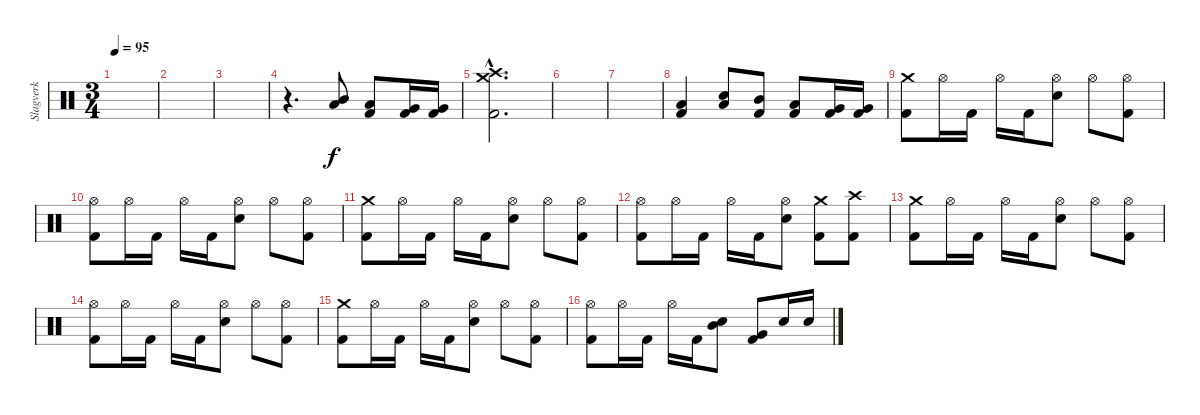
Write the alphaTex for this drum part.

\track ("Slagverk" "Slagverk") {instrument percussion}
\staff {score}
\articulation defaults
\ts (3 4)
\tempo 95
\clef neutral
\ks c
|
|
|
r.4{d} ("Mid Tom (hit)" "Low Tom (hit)").8 ("Low Tom (hit)" "Kick (hit) 2").8 ("Very Low Tom (hit)" "Kick (hit) 2").16 ("Very Low Tom (hit)" "Kick (hit) 2").16 |
("Crash high (hit)"{hac} "Crash medium (hit)"{hac} "Kick (hit) 2"{hac}).2{d} |
|
|
("Low Tom (hit)" "Kick (hit) 2").4 ("Electric Snare (hit)" "Low Tom (hit)").8 ("Mid Tom (hit)" "Kick (hit) 2").8 ("Low Tom (hit)" "Kick (hit) 2").8 ("Very Low Tom (hit)" "Kick (hit) 2").16 ("Very Low Tom (hit)" "Kick (hit) 2").16 |
("Crash medium (hit)" "Kick (hit) 2").8 "Hi-Hat (open)".16 "Kick (hit) 2".16 "Hi-Hat (open)".16 "Kick (hit) 2".16 ("Hi-Hat (open)" "Electric Snare (hit)").8 "Hi-Hat (open)".8 ("Hi-Hat (open)" "Kick (hit) 2").8 |
("Hi-Hat (open)" "Kick (hit) 2").8 "Hi-Hat (open)".16 "Kick (hit) 2".16 "Hi-Hat (open)".16 "Kick (hit) 2".16 ("Hi-Hat (open)" "Electric Snare (hit)").8 "Hi-Hat (open)".8 ("Hi-Hat (open)" "Kick (hit) 2").8 |
("Crash medium (hit)" "Kick (hit) 2").8 "Hi-Hat (open)".16 "Kick (hit) 2".16 "Hi-Hat (open)".16 "Kick (hit) 2".16 ("Hi-Hat (open)" "Electric Snare (hit)").8 "Hi-Hat (open)".8 ("Hi-Hat (open)" "Kick (hit) 2").8 |
("Hi-Hat (open)" "Kick (hit) 2").8 "Hi-Hat (open)".16 "Kick (hit) 2".16 "Hi-Hat (open)".16 "Kick (hit) 2".16 ("Hi-Hat (open)" "Electric Snare (hit)").8 ("Crash medium (hit)" "Kick (hit) 2").8 ("Crash high (hit)" "Kick (hit) 2").8 |
("Crash medium (hit)" "Kick (hit) 2").8 "Hi-Hat (open)".16 "Kick (hit) 2".16 "Hi-Hat (open)".16 "Kick (hit) 2".16 ("Hi-Hat (open)" "Electric Snare (hit)").8 "Hi-Hat (open)".8 ("Hi-Hat (open)" "Kick (hit) 2").8 |
("Hi-Hat (open)" "Kick (hit) 2").8 "Hi-Hat (open)".16 "Kick (hit) 2".16 "Hi-Hat (open)".16 "Kick (hit) 2".16 ("Hi-Hat (open)" "Electric Snare (hit)").8 "Hi-Hat (open)".8 ("Hi-Hat (open)" "Kick (hit) 2").8 |
("Crash medium (hit)" "Kick (hit) 2").8 "Hi-Hat (open)".16 "Kick (hit) 2".16 "Hi-Hat (open)".16 "Kick (hit) 2".16 ("Hi-Hat (open)" "Electric Snare (hit)").8 "Hi-Hat (open)".8 ("Hi-Hat (open)" "Kick (hit) 2").8 |
("Hi-Hat (open)" "Kick (hit) 2").8 "Hi-Hat (open)".16 "Kick (hit) 2".16 "Hi-Hat (open)".16 "Kick (hit) 2".16 ("Electric Snare (hit)" "Mid Tom (hit)").8 ("Very Low Tom (hit)" "Kick (hit) 2").8 "Electric Snare (hit)".16 "Electric Snare (hit)".16
